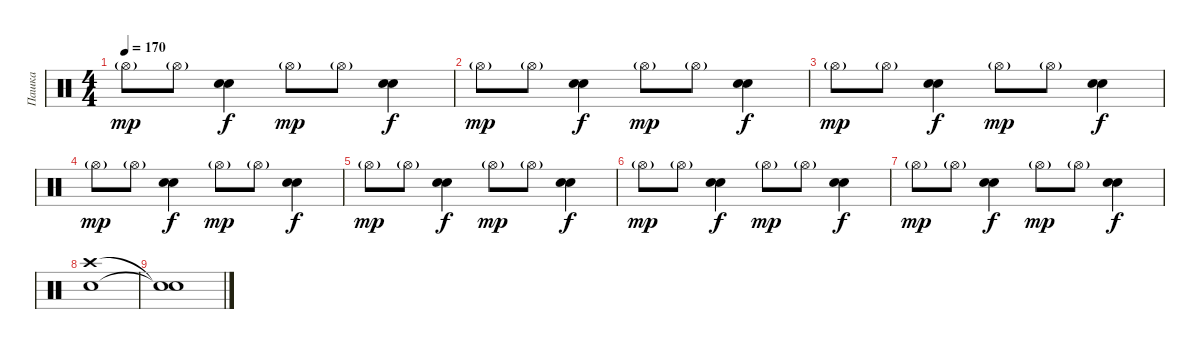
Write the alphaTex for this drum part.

\track ("Пашка" "Пашка") {instrument percussion}
\staff {score}
\articulation defaults
\ts (4 4)
\tempo 170
\clef neutral
\ks c "Hi-Hat (open)"{g}.8{dy mp} "Hi-Hat (open)"{g}.8
("Electric Snare (hit)" "Snare (hit) 2").4{dy f} "Hi-Hat (open)"{g}.8{dy mp} "Hi-Hat (open)"{g}.8 ("Electric Snare (hit)" "Snare (hit) 2").4{dy f} |
"Hi-Hat (open)"{g}.8{dy mp} "Hi-Hat (open)"{g}.8 ("Electric Snare (hit)" "Snare (hit) 2").4{dy f} "Hi-Hat (open)"{g}.8{dy mp} "Hi-Hat (open)"{g}.8 ("Electric Snare (hit)" "Snare (hit) 2").4{dy f} |
"Hi-Hat (open)"{g}.8{dy mp} "Hi-Hat (open)"{g}.8 ("Electric Snare (hit)" "Snare (hit) 2").4{dy f} "Hi-Hat (open)"{g}.8{dy mp} "Hi-Hat (open)"{g}.8 ("Electric Snare (hit)" "Snare (hit) 2").4{dy f} |
"Hi-Hat (open)"{g}.8{dy mp} "Hi-Hat (open)"{g}.8 ("Electric Snare (hit)" "Snare (hit) 2").4{dy f} "Hi-Hat (open)"{g}.8{dy mp} "Hi-Hat (open)"{g}.8 ("Electric Snare (hit)" "Snare (hit) 2").4{dy f} |
"Hi-Hat (open)"{g}.8{dy mp} "Hi-Hat (open)"{g}.8 ("Electric Snare (hit)" "Snare (hit) 2").4{dy f} "Hi-Hat (open)"{g}.8{dy mp} "Hi-Hat (open)"{g}.8 ("Electric Snare (hit)" "Snare (hit) 2").4{dy f} |
"Hi-Hat (open)"{g}.8{dy mp} "Hi-Hat (open)"{g}.8 ("Electric Snare (hit)" "Snare (hit) 2").4{dy f} "Hi-Hat (open)"{g}.8{dy mp} "Hi-Hat (open)"{g}.8 ("Electric Snare (hit)" "Snare (hit) 2").4{dy f} |
"Hi-Hat (open)"{g}.8{dy mp} "Hi-Hat (open)"{g}.8 ("Electric Snare (hit)" "Snare (hit) 2").4{dy f} "Hi-Hat (open)"{g}.8{dy mp} "Hi-Hat (open)"{g}.8 ("Electric Snare (hit)" "Snare (hit) 2").4{dy f} |
("Snare (hit) 2" "Crash high (hit)").1 |
("Snare (hit)"{t} "Snare (hit)"{t}).1
